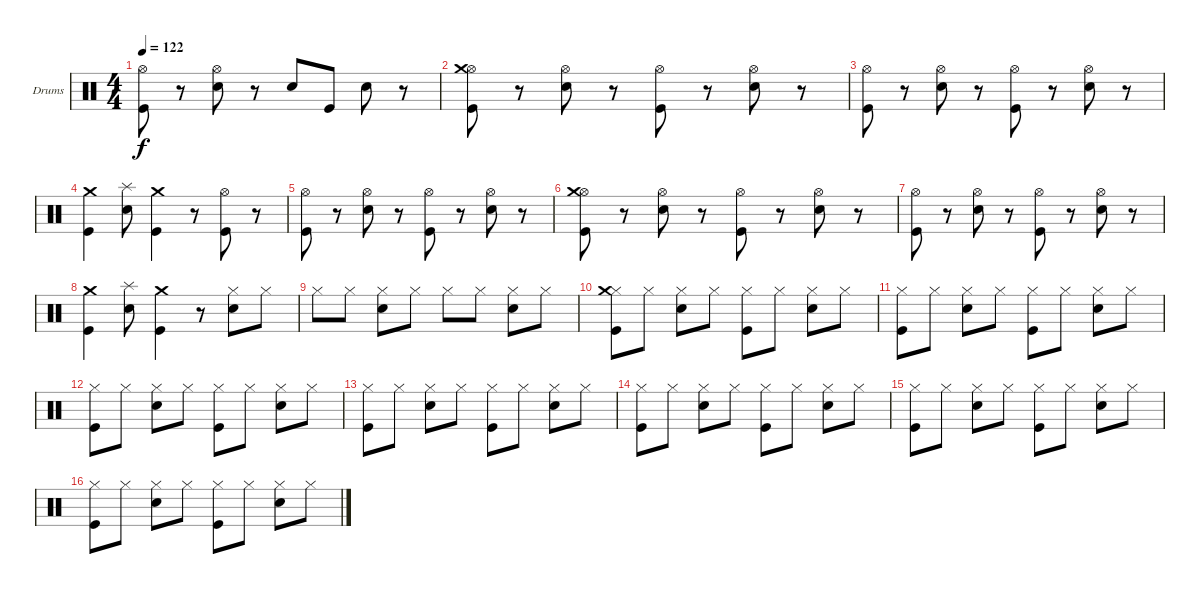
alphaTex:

\bracketExtendMode groupsimilarinstruments
\firstSystemTrackNameOrientation horizontal
\otherSystemsTrackNameOrientation horizontal
\track ("Drumkit" "Drums") {instrument percussion}
\staff {score}
\articulation defaults
\ts (4 4)
\tempo 122
\clef neutral
\ks c
("Kick (hit)" "Hi-Hat (open)").8{dy f} r.8 ("Snare (hit) 2" "Hi-Hat (open)").8 r.8 "Snare (hit) 2".8 "Kick (hit)".8 "Snare (hit) 2".8 r.8 |
("Kick (hit)" "Hi-Hat (open)" "Crash medium (hit)").8 r.8 ("Snare (hit) 2" "Hi-Hat (open)").8 r.8 ("Kick (hit)" "Hi-Hat (open)").8 r.8 ("Snare (hit) 2" "Hi-Hat (open)").8 r.8 |
("Kick (hit)" "Hi-Hat (open)").8 r.8 ("Snare (hit) 2" "Hi-Hat (open)").8 r.8 ("Kick (hit)" "Hi-Hat (open)").8 r.8 ("Snare (hit) 2" "Hi-Hat (open)").8 r.8 |
("Kick (hit)" "Crash medium (hit)").4 ("Snare (hit) 2" "Splash (hit)").8 ("Kick (hit)" "Crash medium (hit)").4 r.8 ("Hi-Hat (open)" "Kick (hit)").8 r.8 |
("Kick (hit)" "Hi-Hat (open)").8 r.8 ("Snare (hit) 2" "Hi-Hat (open)").8 r.8 ("Kick (hit)" "Hi-Hat (open)").8 r.8 ("Snare (hit) 2" "Hi-Hat (open)").8 r.8 |
("Kick (hit)" "Hi-Hat (open)" "Crash medium (hit)").8 r.8 ("Snare (hit) 2" "Hi-Hat (open)").8 r.8 ("Kick (hit)" "Hi-Hat (open)").8 r.8 ("Snare (hit) 2" "Hi-Hat (open)").8 r.8 |
("Kick (hit)" "Hi-Hat (open)").8 r.8 ("Snare (hit) 2" "Hi-Hat (open)").8 r.8 ("Kick (hit)" "Hi-Hat (open)").8 r.8 ("Snare (hit) 2" "Hi-Hat (open)").8 r.8 |
("Kick (hit)" "Crash medium (hit)").4 ("Snare (hit) 2" "Splash (hit)").8 ("Kick (hit)" "Crash medium (hit)").4 r.8 ("Hi-Hat (closed)" "Snare (hit) 2").8 "Hi-Hat (closed)".8 |
"Hi-Hat (closed)".8 "Hi-Hat (closed)".8 ("Snare (hit) 2" "Hi-Hat (closed)").8 "Hi-Hat (closed)".8 "Hi-Hat (closed)".8 "Hi-Hat (closed)".8 ("Snare (hit) 2" "Hi-Hat (closed)").8 "Hi-Hat (closed)".8 |
("Kick (hit)" "Hi-Hat (closed)" "Crash medium (hit)").8 "Hi-Hat (closed)".8 ("Snare (hit) 2" "Hi-Hat (closed)").8 "Hi-Hat (closed)".8 ("Kick (hit)" "Hi-Hat (closed)").8 "Hi-Hat (closed)".8 ("Snare (hit) 2" "Hi-Hat (closed)").8 "Hi-Hat (closed)".8 |
("Kick (hit)" "Hi-Hat (closed)").8 "Hi-Hat (closed)".8 ("Snare (hit) 2" "Hi-Hat (closed)").8 "Hi-Hat (closed)".8 ("Kick (hit)" "Hi-Hat (closed)").8 "Hi-Hat (closed)".8 ("Snare (hit) 2" "Hi-Hat (closed)").8 "Hi-Hat (closed)".8 |
("Kick (hit)" "Hi-Hat (closed)").8 "Hi-Hat (closed)".8 ("Snare (hit) 2" "Hi-Hat (closed)").8 "Hi-Hat (closed)".8 ("Kick (hit)" "Hi-Hat (closed)").8 "Hi-Hat (closed)".8 ("Snare (hit) 2" "Hi-Hat (closed)").8 "Hi-Hat (closed)".8 |
("Kick (hit)" "Hi-Hat (closed)").8 "Hi-Hat (closed)".8 ("Snare (hit) 2" "Hi-Hat (closed)").8 "Hi-Hat (closed)".8 ("Kick (hit)" "Hi-Hat (closed)").8 "Hi-Hat (closed)".8 ("Snare (hit) 2" "Hi-Hat (closed)").8 "Hi-Hat (closed)".8 |
("Kick (hit)" "Hi-Hat (closed)").8 "Hi-Hat (closed)".8 ("Snare (hit) 2" "Hi-Hat (closed)").8 "Hi-Hat (closed)".8 ("Kick (hit)" "Hi-Hat (closed)").8 "Hi-Hat (closed)".8 ("Snare (hit) 2" "Hi-Hat (closed)").8 "Hi-Hat (closed)".8 |
("Kick (hit)" "Hi-Hat (closed)").8 "Hi-Hat (closed)".8 ("Snare (hit) 2" "Hi-Hat (closed)").8 "Hi-Hat (closed)".8 ("Kick (hit)" "Hi-Hat (closed)").8 "Hi-Hat (closed)".8 ("Snare (hit) 2" "Hi-Hat (closed)").8 "Hi-Hat (closed)".8 |
("Kick (hit)" "Hi-Hat (closed)").8 "Hi-Hat (closed)".8 ("Snare (hit) 2" "Hi-Hat (closed)").8 "Hi-Hat (closed)".8 ("Kick (hit)" "Hi-Hat (closed)").8 "Hi-Hat (closed)".8 ("Snare (hit) 2" "Hi-Hat (closed)").8 "Hi-Hat (closed)".8
